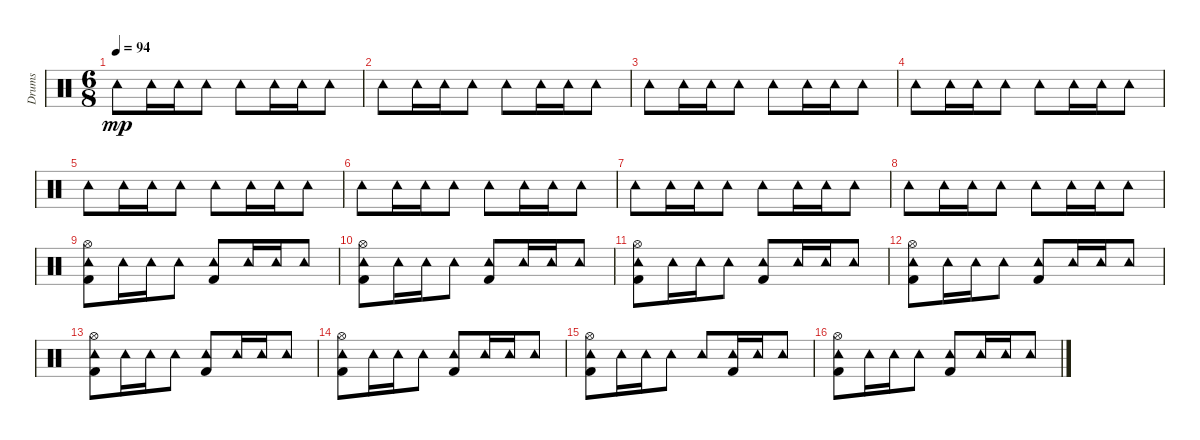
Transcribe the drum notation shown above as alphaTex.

\track ("Drums" "Drums") {instrument percussion}
\staff {score}
\articulation defaults
\ts (6 8)
\tempo 94
\clef neutral
\ks c "Tambourine (hit)".8{dy mp} "Tambourine (hit)".16 "Tambourine (hit)".16 "Tambourine (hit)".8 "Tambourine (hit)".8 "Tambourine (hit)".16 "Tambourine (hit)".16 "Tambourine (hit)".8
|
"Tambourine (hit)".8 "Tambourine (hit)".16 "Tambourine (hit)".16 "Tambourine (hit)".8 "Tambourine (hit)".8 "Tambourine (hit)".16 "Tambourine (hit)".16 "Tambourine (hit)".8 |
"Tambourine (hit)".8 "Tambourine (hit)".16 "Tambourine (hit)".16 "Tambourine (hit)".8 "Tambourine (hit)".8 "Tambourine (hit)".16 "Tambourine (hit)".16 "Tambourine (hit)".8 |
"Tambourine (hit)".8 "Tambourine (hit)".16 "Tambourine (hit)".16 "Tambourine (hit)".8 "Tambourine (hit)".8 "Tambourine (hit)".16 "Tambourine (hit)".16 "Tambourine (hit)".8 |
"Tambourine (hit)".8 "Tambourine (hit)".16 "Tambourine (hit)".16 "Tambourine (hit)".8 "Tambourine (hit)".8 "Tambourine (hit)".16 "Tambourine (hit)".16 "Tambourine (hit)".8 |
"Tambourine (hit)".8 "Tambourine (hit)".16 "Tambourine (hit)".16 "Tambourine (hit)".8 "Tambourine (hit)".8 "Tambourine (hit)".16 "Tambourine (hit)".16 "Tambourine (hit)".8 |
"Tambourine (hit)".8 "Tambourine (hit)".16 "Tambourine (hit)".16 "Tambourine (hit)".8 "Tambourine (hit)".8 "Tambourine (hit)".16 "Tambourine (hit)".16 "Tambourine (hit)".8 |
"Tambourine (hit)".8 "Tambourine (hit)".16 "Tambourine (hit)".16 "Tambourine (hit)".8 "Tambourine (hit)".8 "Tambourine (hit)".16 "Tambourine (hit)".16 "Tambourine (hit)".8 |
("Tambourine (hit)" "Kick (hit) 2" "Hi-Hat (open)").8 "Tambourine (hit)".16 "Tambourine (hit)".16 "Tambourine (hit)".8 ("Tambourine (hit)" "Kick (hit) 2").8 "Tambourine (hit)".16 "Tambourine (hit)".16 "Tambourine (hit)".8 |
("Tambourine (hit)" "Kick (hit) 2" "Hi-Hat (open)").8 "Tambourine (hit)".16 "Tambourine (hit)".16 "Tambourine (hit)".8 ("Tambourine (hit)" "Kick (hit) 2").8 "Tambourine (hit)".16 "Tambourine (hit)".16 "Tambourine (hit)".8 |
("Tambourine (hit)" "Kick (hit) 2" "Hi-Hat (open)").8 "Tambourine (hit)".16 "Tambourine (hit)".16 "Tambourine (hit)".8 ("Tambourine (hit)" "Kick (hit) 2").8 "Tambourine (hit)".16 "Tambourine (hit)".16 "Tambourine (hit)".8 |
("Tambourine (hit)" "Kick (hit) 2" "Hi-Hat (open)").8 "Tambourine (hit)".16 "Tambourine (hit)".16 "Tambourine (hit)".8 ("Tambourine (hit)" "Kick (hit) 2").8 "Tambourine (hit)".16 "Tambourine (hit)".16 "Tambourine (hit)".8 |
("Tambourine (hit)" "Kick (hit) 2" "Hi-Hat (open)").8 "Tambourine (hit)".16 "Tambourine (hit)".16 "Tambourine (hit)".8 ("Tambourine (hit)" "Kick (hit) 2").8 "Tambourine (hit)".16 "Tambourine (hit)".16 "Tambourine (hit)".8 |
("Tambourine (hit)" "Kick (hit) 2" "Hi-Hat (open)").8 "Tambourine (hit)".16 "Tambourine (hit)".16 "Tambourine (hit)".8 ("Tambourine (hit)" "Kick (hit) 2").8 "Tambourine (hit)".16 "Tambourine (hit)".16 "Tambourine (hit)".8 |
("Tambourine (hit)" "Kick (hit) 2" "Hi-Hat (open)").8 "Tambourine (hit)".16 "Tambourine (hit)".16 "Tambourine (hit)".8 "Tambourine (hit)".8 ("Tambourine (hit)" "Kick (hit) 2").16 "Tambourine (hit)".16 "Tambourine (hit)".8 |
("Tambourine (hit)" "Kick (hit) 2" "Hi-Hat (open)").8 "Tambourine (hit)".16 "Tambourine (hit)".16 "Tambourine (hit)".8 ("Tambourine (hit)" "Kick (hit) 2").8 "Tambourine (hit)".16 "Tambourine (hit)".16 "Tambourine (hit)".8
